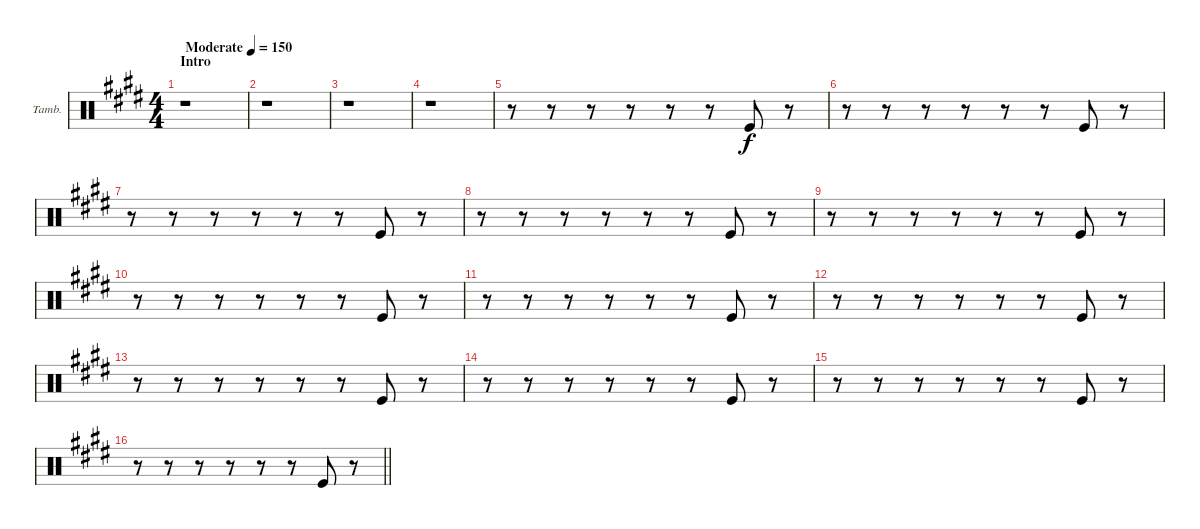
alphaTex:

\bracketExtendMode groupsimilarinstruments
\firstSystemTrackNameOrientation horizontal
\otherSystemsTrackNameOrientation horizontal
\track ("Tambourine" "Tamb.") {instrument percussion}
\staff {score}
\articulation defaults
\ts (4 4)
\beaming (8 2 2 2 2)
\section ("" "Intro")
\tempo (150 "Moderate")
\clef neutral
\ks e
r.1{dy f} |
r.1 |
r.1 |
r.1 |
r.8 r.8 r.8 r.8 r.8 r.8 "Kick (hit)".8 r.8 |
r.8 r.8 r.8 r.8 r.8 r.8 "Kick (hit)".8 r.8 |
r.8 r.8 r.8 r.8 r.8 r.8 "Kick (hit)".8 r.8 |
r.8 r.8 r.8 r.8 r.8 r.8 "Kick (hit)".8 r.8 |
r.8 r.8 r.8 r.8 r.8 r.8 "Kick (hit)".8 r.8 |
r.8 r.8 r.8 r.8 r.8 r.8 "Kick (hit)".8 r.8 |
r.8 r.8 r.8 r.8 r.8 r.8 "Kick (hit)".8 r.8 |
r.8 r.8 r.8 r.8 r.8 r.8 "Kick (hit)".8 r.8 |
r.8 r.8 r.8 r.8 r.8 r.8 "Kick (hit)".8 r.8 |
r.8 r.8 r.8 r.8 r.8 r.8 "Kick (hit)".8 r.8 |
r.8 r.8 r.8 r.8 r.8 r.8 "Kick (hit)".8 r.8 |
\barLineRight lightlight
r.8 r.8 r.8 r.8 r.8 r.8 "Kick (hit)".8 r.8
